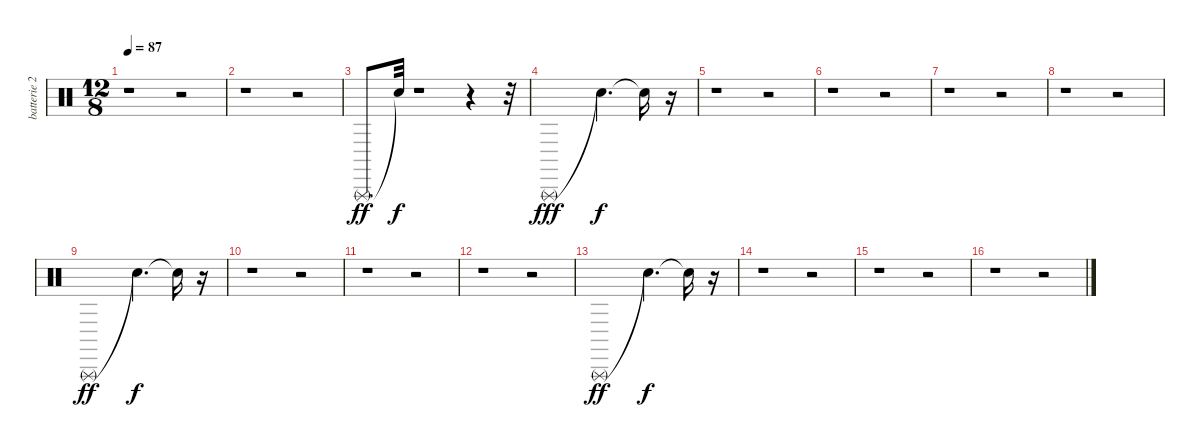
\track ("batterie 2" "batterie 2") {instrument percussion}
\staff {score}
\articulation defaults
\ts (12 8)
\tempo 87
\clef neutral
\ks c
r.1{dy ff} r.2 |
r.1 r.2 |
"Triangle (rnute)".8{d} "Snare (hit)"{t}.32{dy f} r.1 r.4 r.32 |
"Triangle (rnute)".1{dy fff} "Snare (hit)"{t}.4{d dy f} "Snare (hit)"{t}.16 r.16 |
r.1 r.2 |
r.1 r.2 |
r.1 r.2 |
r.1 r.2 |
"Triangle (rnute)".1{dy ff} "Snare (hit)"{t}.4{d dy f} "Snare (hit)"{t}.16 r.16 |
r.1 r.2 |
r.1 r.2 |
r.1 r.2 |
"Triangle (rnute)".1{dy ff} "Snare (hit)"{t}.4{d dy f} "Snare (hit)"{t}.16 r.16 |
r.1 r.2 |
r.1 r.2 |
r.1 r.2
